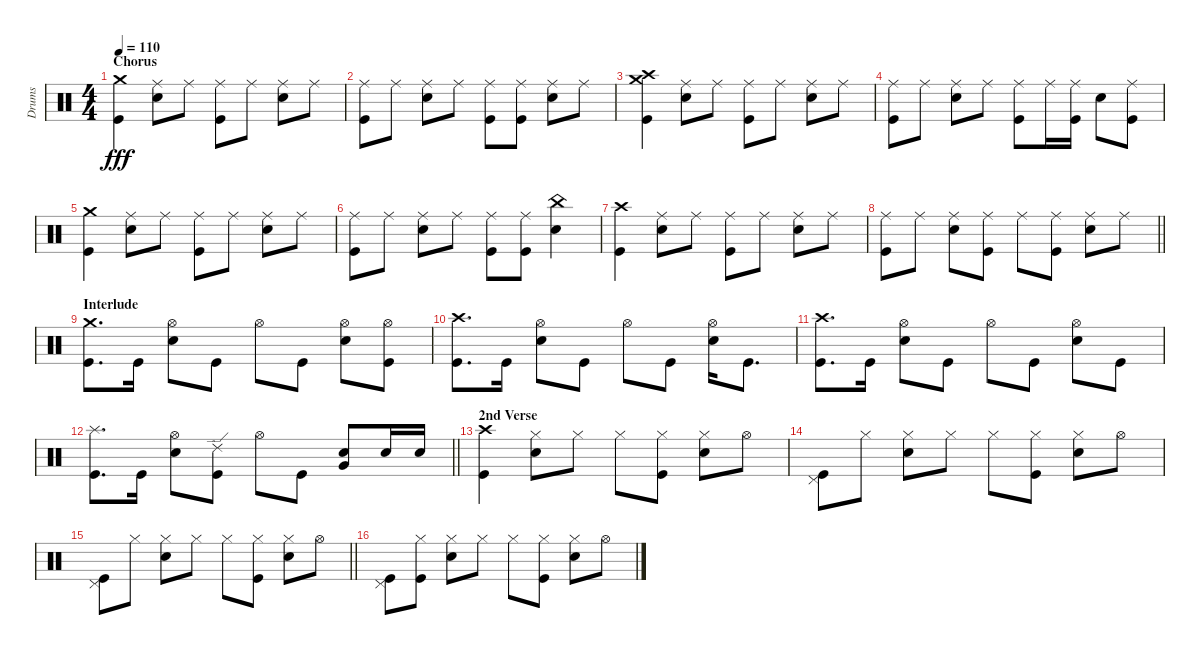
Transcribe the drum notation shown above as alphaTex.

\track ("Drums" "Drums") {instrument percussion}
\staff {score}
\articulation defaults
\ts (4 4)
\section ("" "Chorus")
\tempo 110
\clef neutral
\ks c
("Crash medium (hit)" "Kick (hit)").4{dy fff} ("Ride (middle)" "Snare (hit) 2").8 "Ride (middle)".8 ("Ride (middle)" "Kick (hit)").8 "Ride (middle)".8 ("Ride (middle)" "Snare (hit) 2").8 "Ride (middle)".8 |
("Ride (middle)" "Kick (hit)").8 "Ride (middle)".8 ("Ride (middle)" "Snare (hit) 2").8 "Ride (middle)".8 ("Ride (middle)" "Kick (hit)").8 ("Ride (middle)" "Kick (hit)").8 ("Ride (middle)" "Snare (hit) 2").8 "Ride (middle)".8 |
("Crash medium (hit)" "Crash high (hit)" "Kick (hit)").4 ("Ride (middle)" "Snare (hit) 2").8 "Ride (middle)".8 ("Ride (middle)" "Kick (hit)").8 "Ride (middle)".8 ("Ride (middle)" "Snare (hit) 2").8 "Ride (middle)".8 |
("Ride (middle)" "Kick (hit)").8 "Ride (middle)".8 ("Ride (middle)" "Snare (hit) 2").8 "Ride (middle)".8 ("Ride (middle)" "Kick (hit)").8 "Ride (middle)".16 ("Ride (middle)" "Kick (hit)").16 "Snare (hit) 2".8 ("Ride (middle)" "Kick (hit)").8 |
("Crash medium (hit)" "Kick (hit)").4 ("Ride (middle)" "Snare (hit) 2").8 "Ride (middle)".8 ("Ride (middle)" "Kick (hit)").8 "Ride (middle)".8 ("Ride (middle)" "Snare (hit) 2").8 "Ride (middle)".8 |
("Ride (middle)" "Kick (hit)").8 "Ride (middle)".8 ("Ride (middle)" "Snare (hit) 2").8 "Ride (middle)".8 ("Ride (middle)" "Kick (hit)").8 ("Ride (middle)" "Kick (hit)").8 ("China (hit)" "Snare (hit) 2").4 |
("Crash high (hit)" "Kick (hit)").4 ("Ride (middle)" "Snare (hit) 2").8 "Ride (middle)".8 ("Ride (middle)" "Kick (hit)").8 "Ride (middle)".8 ("Ride (middle)" "Snare (hit) 2").8 "Ride (middle)".8 |
\barLineRight lightlight
("Ride (middle)" "Kick (hit)").8 "Ride (middle)".8 ("Ride (middle)" "Snare (hit) 2").8 ("Ride (middle)" "Kick (hit)").8 "Ride (middle)".8 ("Ride (middle)" "Kick (hit)").8 ("Ride (middle)" "Snare (hit) 2").8 "Ride (middle)".8 |
\section ("" "Interlude")
("Crash medium (hit)" "Kick (hit)").8{d} "Kick (hit)".16 ("Hi-Hat (open)" "Snare (hit) 2").8 "Kick (hit)".8 "Hi-Hat (open)".8 "Kick (hit)".8 ("Hi-Hat (open)" "Snare (hit) 2").8 ("Hi-Hat (open)" "Kick (hit)").8 |
("Crash high (hit)" "Kick (hit)").8{d} "Kick (hit)".16 ("Hi-Hat (open)" "Snare (hit) 2").8 "Kick (hit)".8 "Hi-Hat (open)".8 "Kick (hit)".8 ("Hi-Hat (open)" "Snare (hit) 2").16 "Kick (hit)".8{d} |
("Crash high (hit)" "Kick (hit)").8{d} "Kick (hit)".16 ("Hi-Hat (open)" "Snare (hit) 2").8 "Kick (hit)".8 "Hi-Hat (open)".8 "Kick (hit)".8 ("Hi-Hat (open)" "Snare (hit) 2").8 "Kick (hit)".8 |
\barLineRight lightlight
("Splash (hit)" "Kick (hit)").8{d} "Kick (hit)".16 ("Hi-Hat (open)" "Snare (hit) 2").8 ("Ride (edge) 2" "Kick (hit)").8 "Hi-Hat (open)".8 "Kick (hit)".8 ("Very Low Tom (hit)" "Snare (hit) 2").8 "Snare (hit) 2".16 "Snare (hit) 2".16 |
\section ("" "2nd Verse")
("Crash high (hit)" "Kick (hit)").4 ("Hi-Hat (closed)" "Snare (hit) 2").8 "Hi-Hat (closed)".8 "Hi-Hat (closed)".8 ("Hi-Hat (closed)" "Kick (hit)").8 ("Hi-Hat (closed)" "Snare (hit) 2").8 "Hi-Hat (open)".8 |
("Pedal Hi-Hat (hit)" "Kick (hit)").8 "Hi-Hat (closed)".8 ("Hi-Hat (closed)" "Snare (hit) 2").8 "Hi-Hat (closed)".8 "Hi-Hat (closed)".8 ("Hi-Hat (closed)" "Kick (hit)").8 ("Hi-Hat (closed)" "Snare (hit) 2").8 "Hi-Hat (open)".8 |
\barLineRight lightlight
("Pedal Hi-Hat (hit)" "Kick (hit)").8 "Hi-Hat (closed)".8 ("Hi-Hat (closed)" "Snare (hit) 2").8 "Hi-Hat (closed)".8 "Hi-Hat (closed)".8 ("Hi-Hat (closed)" "Kick (hit)").8 ("Hi-Hat (closed)" "Snare (hit) 2").8 "Hi-Hat (open)".8 |
("Pedal Hi-Hat (hit)" "Kick (hit)").8 ("Hi-Hat (closed)" "Kick (hit)").8 ("Hi-Hat (closed)" "Snare (hit) 2").8 "Hi-Hat (closed)".8 "Hi-Hat (closed)".8 ("Hi-Hat (closed)" "Kick (hit)").8 ("Hi-Hat (closed)" "Snare (hit) 2").8 "Hi-Hat (open)".8
